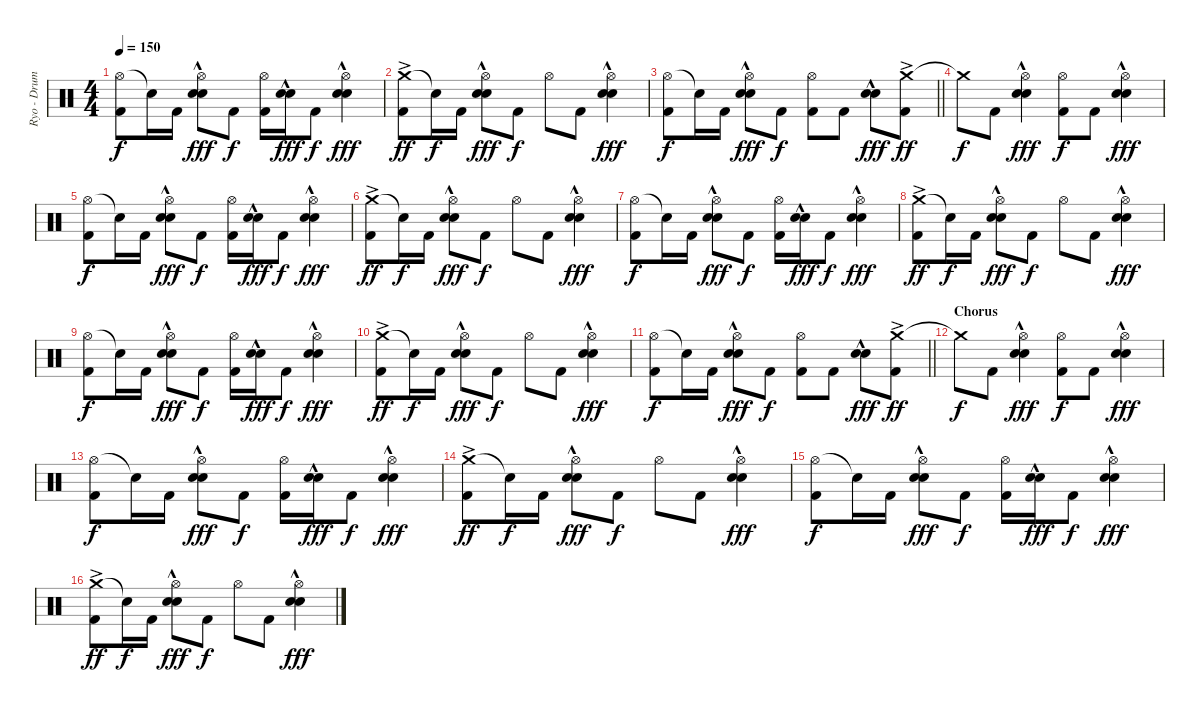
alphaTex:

\track ("Ryo - Drums" "Ryo - Drum") {instrument percussion}
\staff {score}
\articulation defaults
\ts (4 4)
\tempo 150
\clef neutral
\ks c
("Hi-Hat (open)" "Kick (hit) 2").8{dy f} "Snare (hit)"{t}.16 "Kick (hit) 2".16 ("Hi-Hat (open)" "Electric Snare (hit)"{hac} "Snare (hit) 2"{hac}).8{dy fff} "Kick (hit) 2".8{dy f} ("Hi-Hat (open)" "Kick (hit) 2").16 ("Electric Snare (hit)"{hac} "Snare (hit) 2"{hac}).16{dy fff} "Kick (hit) 2".8{dy f} ("Hi-Hat (open)" "Electric Snare (hit)"{hac} "Snare (hit) 2"{hac}).4{dy fff} |
("Crash medium (hit)"{ac} "Kick (hit) 2").8{dy ff} "Snare (hit)"{t}.16{dy f} "Kick (hit) 2".16 ("Hi-Hat (open)" "Electric Snare (hit)"{hac} "Snare (hit) 2"{hac}).8{dy fff} "Kick (hit) 2".8{dy f} "Hi-Hat (open)".8 "Kick (hit) 2".8 ("Hi-Hat (open)" "Electric Snare (hit)"{hac} "Snare (hit) 2"{hac}).4{dy fff} |
\barLineRight lightlight
("Hi-Hat (open)" "Kick (hit) 2").8{dy f} "Snare (hit)"{t}.16 "Kick (hit) 2".16 ("Hi-Hat (open)" "Electric Snare (hit)"{hac} "Snare (hit) 2"{hac}).8{dy fff} "Kick (hit) 2".8{dy f} ("Hi-Hat (open)" "Kick (hit) 2").8 "Kick (hit) 2".8 ("Electric Snare (hit)"{hac} "Snare (hit) 2"{hac}).8{dy fff} ("Crash medium (hit)"{ac} "Kick (hit) 2").8{dy ff} |
\section ("" "")
"Crash medium (hit)"{t}.8{dy f} "Kick (hit) 2".8 ("Hi-Hat (open)" "Electric Snare (hit)"{hac} "Snare (hit) 2"{hac}).4{dy fff} ("Hi-Hat (open)" "Kick (hit) 2").8{dy f} "Kick (hit) 2".8 ("Hi-Hat (open)" "Electric Snare (hit)"{hac} "Snare (hit) 2"{hac}).4{dy fff} |
("Hi-Hat (open)" "Kick (hit) 2").8{dy f} "Snare (hit)"{t}.16 "Kick (hit) 2".16 ("Hi-Hat (open)" "Electric Snare (hit)"{hac} "Snare (hit) 2"{hac}).8{dy fff} "Kick (hit) 2".8{dy f} ("Hi-Hat (open)" "Kick (hit) 2").16 ("Electric Snare (hit)"{hac} "Snare (hit) 2"{hac}).16{dy fff} "Kick (hit) 2".8{dy f} ("Hi-Hat (open)" "Electric Snare (hit)"{hac} "Snare (hit) 2"{hac}).4{dy fff} |
("Crash medium (hit)"{ac} "Kick (hit) 2").8{dy ff} "Snare (hit)"{t}.16{dy f} "Kick (hit) 2".16 ("Hi-Hat (open)" "Electric Snare (hit)"{hac} "Snare (hit) 2"{hac}).8{dy fff} "Kick (hit) 2".8{dy f} "Hi-Hat (open)".8 "Kick (hit) 2".8 ("Hi-Hat (open)" "Electric Snare (hit)"{hac} "Snare (hit) 2"{hac}).4{dy fff} |
("Hi-Hat (open)" "Kick (hit) 2").8{dy f} "Snare (hit)"{t}.16 "Kick (hit) 2".16 ("Hi-Hat (open)" "Electric Snare (hit)"{hac} "Snare (hit) 2"{hac}).8{dy fff} "Kick (hit) 2".8{dy f} ("Hi-Hat (open)" "Kick (hit) 2").16 ("Electric Snare (hit)"{hac} "Snare (hit) 2"{hac}).16{dy fff} "Kick (hit) 2".8{dy f} ("Hi-Hat (open)" "Electric Snare (hit)"{hac} "Snare (hit) 2"{hac}).4{dy fff} |
("Crash medium (hit)"{ac} "Kick (hit) 2").8{dy ff} "Snare (hit)"{t}.16{dy f} "Kick (hit) 2".16 ("Hi-Hat (open)" "Electric Snare (hit)"{hac} "Snare (hit) 2"{hac}).8{dy fff} "Kick (hit) 2".8{dy f} "Hi-Hat (open)".8 "Kick (hit) 2".8 ("Hi-Hat (open)" "Electric Snare (hit)"{hac} "Snare (hit) 2"{hac}).4{dy fff} |
("Hi-Hat (open)" "Kick (hit) 2").8{dy f} "Snare (hit)"{t}.16 "Kick (hit) 2".16 ("Hi-Hat (open)" "Electric Snare (hit)"{hac} "Snare (hit) 2"{hac}).8{dy fff} "Kick (hit) 2".8{dy f} ("Hi-Hat (open)" "Kick (hit) 2").16 ("Electric Snare (hit)"{hac} "Snare (hit) 2"{hac}).16{dy fff} "Kick (hit) 2".8{dy f} ("Hi-Hat (open)" "Electric Snare (hit)"{hac} "Snare (hit) 2"{hac}).4{dy fff} |
("Crash medium (hit)"{ac} "Kick (hit) 2").8{dy ff} "Snare (hit)"{t}.16{dy f} "Kick (hit) 2".16 ("Hi-Hat (open)" "Electric Snare (hit)"{hac} "Snare (hit) 2"{hac}).8{dy fff} "Kick (hit) 2".8{dy f} "Hi-Hat (open)".8 "Kick (hit) 2".8 ("Hi-Hat (open)" "Electric Snare (hit)"{hac} "Snare (hit) 2"{hac}).4{dy fff} |
\barLineRight lightlight
("Hi-Hat (open)" "Kick (hit) 2").8{dy f} "Snare (hit)"{t}.16 "Kick (hit) 2".16 ("Hi-Hat (open)" "Electric Snare (hit)"{hac} "Snare (hit) 2"{hac}).8{dy fff} "Kick (hit) 2".8{dy f} ("Hi-Hat (open)" "Kick (hit) 2").8 "Kick (hit) 2".8 ("Electric Snare (hit)"{hac} "Snare (hit) 2"{hac}).8{dy fff} ("Crash medium (hit)"{ac} "Kick (hit) 2").8{dy ff} |
\section ("" "Chorus")
"Crash medium (hit)"{t}.8{dy f} "Kick (hit) 2".8 ("Hi-Hat (open)" "Electric Snare (hit)"{hac} "Snare (hit) 2"{hac}).4{dy fff} ("Hi-Hat (open)" "Kick (hit) 2").8{dy f} "Kick (hit) 2".8 ("Hi-Hat (open)" "Electric Snare (hit)"{hac} "Snare (hit) 2"{hac}).4{dy fff} |
("Hi-Hat (open)" "Kick (hit) 2").8{dy f} "Snare (hit)"{t}.16 "Kick (hit) 2".16 ("Hi-Hat (open)" "Electric Snare (hit)"{hac} "Snare (hit) 2"{hac}).8{dy fff} "Kick (hit) 2".8{dy f} ("Hi-Hat (open)" "Kick (hit) 2").16 ("Electric Snare (hit)"{hac} "Snare (hit) 2"{hac}).16{dy fff} "Kick (hit) 2".8{dy f} ("Hi-Hat (open)" "Electric Snare (hit)"{hac} "Snare (hit) 2"{hac}).4{dy fff} |
("Crash medium (hit)"{ac} "Kick (hit) 2").8{dy ff} "Snare (hit)"{t}.16{dy f} "Kick (hit) 2".16 ("Hi-Hat (open)" "Electric Snare (hit)"{hac} "Snare (hit) 2"{hac}).8{dy fff} "Kick (hit) 2".8{dy f} "Hi-Hat (open)".8 "Kick (hit) 2".8 ("Hi-Hat (open)" "Electric Snare (hit)"{hac} "Snare (hit) 2"{hac}).4{dy fff} |
("Hi-Hat (open)" "Kick (hit) 2").8{dy f} "Snare (hit)"{t}.16 "Kick (hit) 2".16 ("Hi-Hat (open)" "Electric Snare (hit)"{hac} "Snare (hit) 2"{hac}).8{dy fff} "Kick (hit) 2".8{dy f} ("Hi-Hat (open)" "Kick (hit) 2").16 ("Electric Snare (hit)"{hac} "Snare (hit) 2"{hac}).16{dy fff} "Kick (hit) 2".8{dy f} ("Hi-Hat (open)" "Electric Snare (hit)"{hac} "Snare (hit) 2"{hac}).4{dy fff} |
("Crash medium (hit)"{ac} "Kick (hit) 2").8{dy ff} "Snare (hit)"{t}.16{dy f} "Kick (hit) 2".16 ("Hi-Hat (open)" "Electric Snare (hit)"{hac} "Snare (hit) 2"{hac}).8{dy fff} "Kick (hit) 2".8{dy f} "Hi-Hat (open)".8 "Kick (hit) 2".8 ("Hi-Hat (open)" "Electric Snare (hit)"{hac} "Snare (hit) 2"{hac}).4{dy fff}
